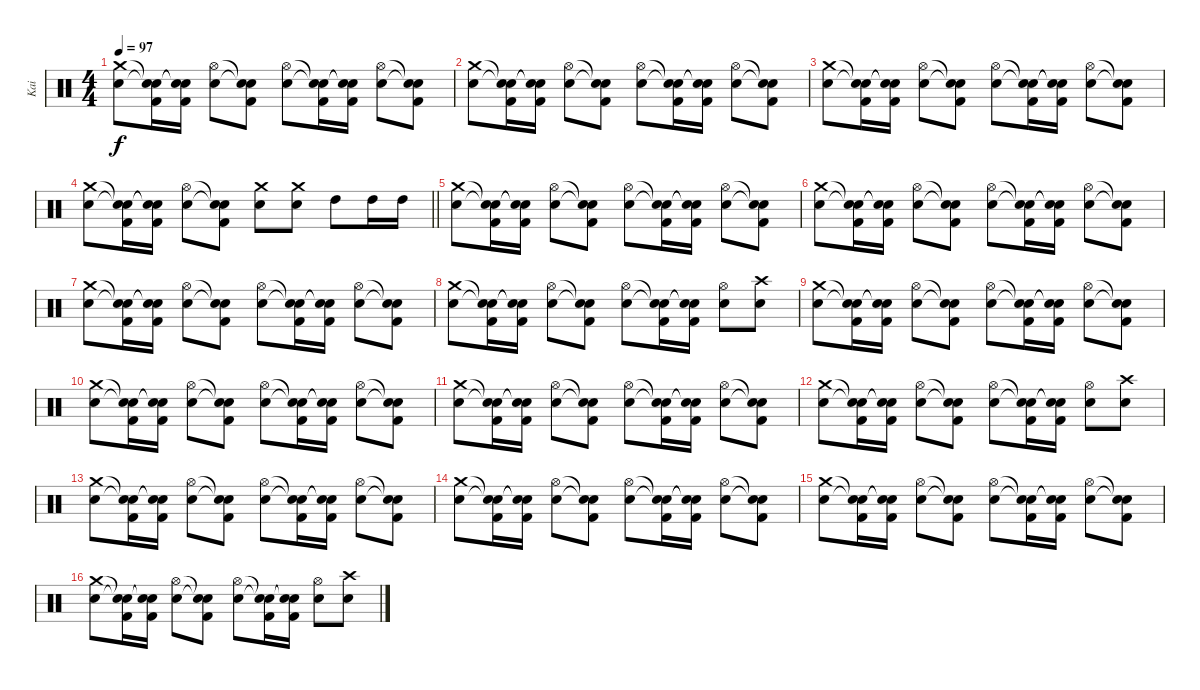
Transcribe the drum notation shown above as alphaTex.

\track ("Kai" "Kai") {instrument percussion}
\staff {score}
\articulation defaults
\ts (4 4)
\tempo 97
\clef neutral
\ks c
("Crash medium (hit)" "Snare (hit) 2").8{dy f} ("Snare (hit)"{t} "Snare (hit)"{t} "Kick (hit) 2").16 ("Snare (hit)"{t} "Snare (hit)"{t} "Kick (hit) 2").16 ("Hi-Hat (open)" "Snare (hit) 2").8 ("Snare (hit)"{t} "Snare (hit)"{t} "Kick (hit) 2").8 ("Hi-Hat (open)" "Snare (hit) 2").8 ("Snare (hit)"{t} "Snare (hit)"{t} "Kick (hit) 2").16 ("Snare (hit)"{t} "Snare (hit)"{t} "Kick (hit) 2").16 ("Hi-Hat (open)" "Snare (hit) 2").8 ("Snare (hit)"{t} "Snare (hit)"{t} "Kick (hit) 2").8 |
("Crash medium (hit)" "Snare (hit) 2").8 ("Snare (hit)"{t} "Snare (hit)"{t} "Kick (hit) 2").16 ("Snare (hit)"{t} "Snare (hit)"{t} "Kick (hit) 2").16 ("Hi-Hat (open)" "Snare (hit) 2").8 ("Snare (hit)"{t} "Snare (hit)"{t} "Kick (hit) 2").8 ("Hi-Hat (open)" "Snare (hit) 2").8 ("Snare (hit)"{t} "Snare (hit)"{t} "Kick (hit) 2").16 ("Snare (hit)"{t} "Snare (hit)"{t} "Kick (hit) 2").16 ("Hi-Hat (open)" "Snare (hit) 2").8 ("Snare (hit)"{t} "Snare (hit)"{t} "Kick (hit) 2").8 |
("Crash medium (hit)" "Snare (hit) 2").8 ("Snare (hit)"{t} "Snare (hit)"{t} "Kick (hit) 2").16 ("Snare (hit)"{t} "Snare (hit)"{t} "Kick (hit) 2").16 ("Hi-Hat (open)" "Snare (hit) 2").8 ("Snare (hit)"{t} "Snare (hit)"{t} "Kick (hit) 2").8 ("Hi-Hat (open)" "Snare (hit) 2").8 ("Snare (hit)"{t} "Snare (hit)"{t} "Kick (hit) 2").16 ("Snare (hit)"{t} "Snare (hit)"{t} "Kick (hit) 2").16 ("Hi-Hat (open)" "Snare (hit) 2").8 ("Snare (hit)"{t} "Snare (hit)"{t} "Kick (hit) 2").8 |
\barLineRight lightlight
("Crash medium (hit)" "Snare (hit) 2").8 ("Snare (hit)"{t} "Snare (hit)"{t} "Kick (hit) 2").16 ("Snare (hit)"{t} "Snare (hit)"{t} "Kick (hit) 2").16 ("Hi-Hat (open)" "Snare (hit) 2").8 ("Snare (hit)"{t} "Snare (hit)"{t} "Kick (hit) 2").8 ("Crash medium (hit)" "Snare (hit) 2").8 ("Crash medium (hit)" "Snare (hit) 2").8 "High Tom (hit)".8 "High Tom (hit)".16 "High Tom (hit)".16 |
("Crash medium (hit)" "Snare (hit) 2").8 ("Snare (hit)"{t} "Snare (hit)"{t} "Kick (hit) 2").16 ("Snare (hit)"{t} "Snare (hit)"{t} "Kick (hit) 2").16 ("Hi-Hat (open)" "Snare (hit) 2").8 ("Snare (hit)"{t} "Snare (hit)"{t} "Kick (hit) 2").8 ("Hi-Hat (open)" "Snare (hit) 2").8 ("Snare (hit)"{t} "Snare (hit)"{t} "Kick (hit) 2").16 ("Snare (hit)"{t} "Snare (hit)"{t} "Kick (hit) 2").16 ("Hi-Hat (open)" "Snare (hit) 2").8 ("Snare (hit)"{t} "Snare (hit)"{t} "Kick (hit) 2").8 |
("Crash medium (hit)" "Snare (hit) 2").8 ("Snare (hit)"{t} "Snare (hit)"{t} "Kick (hit) 2").16 ("Snare (hit)"{t} "Snare (hit)"{t} "Kick (hit) 2").16 ("Hi-Hat (open)" "Snare (hit) 2").8 ("Snare (hit)"{t} "Snare (hit)"{t} "Kick (hit) 2").8 ("Hi-Hat (open)" "Snare (hit) 2").8 ("Snare (hit)"{t} "Snare (hit)"{t} "Kick (hit) 2").16 ("Snare (hit)"{t} "Snare (hit)"{t} "Kick (hit) 2").16 ("Hi-Hat (open)" "Snare (hit) 2").8 ("Snare (hit)"{t} "Snare (hit)"{t} "Kick (hit) 2").8 |
("Crash medium (hit)" "Snare (hit) 2").8 ("Snare (hit)"{t} "Snare (hit)"{t} "Kick (hit) 2").16 ("Snare (hit)"{t} "Snare (hit)"{t} "Kick (hit) 2").16 ("Hi-Hat (open)" "Snare (hit) 2").8 ("Snare (hit)"{t} "Snare (hit)"{t} "Kick (hit) 2").8 ("Hi-Hat (open)" "Snare (hit) 2").8 ("Snare (hit)"{t} "Snare (hit)"{t} "Kick (hit) 2").16 ("Snare (hit)"{t} "Snare (hit)"{t} "Kick (hit) 2").16 ("Hi-Hat (open)" "Snare (hit) 2").8 ("Snare (hit)"{t} "Snare (hit)"{t} "Kick (hit) 2").8 |
("Crash medium (hit)" "Snare (hit) 2").8 ("Snare (hit)"{t} "Snare (hit)"{t} "Kick (hit) 2").16 ("Snare (hit)"{t} "Snare (hit)"{t} "Kick (hit) 2").16 ("Hi-Hat (open)" "Snare (hit) 2").8 ("Snare (hit)"{t} "Snare (hit)"{t} "Kick (hit) 2").8 ("Hi-Hat (open)" "Snare (hit) 2").8 ("Snare (hit)"{t} "Snare (hit)"{t} "Kick (hit) 2").16 ("Snare (hit)"{t} "Snare (hit)"{t} "Kick (hit) 2").16 ("Hi-Hat (open)" "Snare (hit) 2").8 ("Crash high (hit)" "Snare (hit) 2").8 |
("Crash medium (hit)" "Snare (hit) 2").8 ("Snare (hit)"{t} "Snare (hit)"{t} "Kick (hit) 2").16 ("Snare (hit)"{t} "Snare (hit)"{t} "Kick (hit) 2").16 ("Hi-Hat (open)" "Snare (hit) 2").8 ("Snare (hit)"{t} "Snare (hit)"{t} "Kick (hit) 2").8 ("Hi-Hat (open)" "Snare (hit) 2").8 ("Snare (hit)"{t} "Snare (hit)"{t} "Kick (hit) 2").16 ("Snare (hit)"{t} "Snare (hit)"{t} "Kick (hit) 2").16 ("Hi-Hat (open)" "Snare (hit) 2").8 ("Snare (hit)"{t} "Snare (hit)"{t} "Kick (hit) 2").8 |
("Crash medium (hit)" "Snare (hit) 2").8 ("Snare (hit)"{t} "Snare (hit)"{t} "Kick (hit) 2").16 ("Snare (hit)"{t} "Snare (hit)"{t} "Kick (hit) 2").16 ("Hi-Hat (open)" "Snare (hit) 2").8 ("Snare (hit)"{t} "Snare (hit)"{t} "Kick (hit) 2").8 ("Hi-Hat (open)" "Snare (hit) 2").8 ("Snare (hit)"{t} "Snare (hit)"{t} "Kick (hit) 2").16 ("Snare (hit)"{t} "Snare (hit)"{t} "Kick (hit) 2").16 ("Hi-Hat (open)" "Snare (hit) 2").8 ("Snare (hit)"{t} "Snare (hit)"{t} "Kick (hit) 2").8 |
("Crash medium (hit)" "Snare (hit) 2").8 ("Snare (hit)"{t} "Snare (hit)"{t} "Kick (hit) 2").16 ("Snare (hit)"{t} "Snare (hit)"{t} "Kick (hit) 2").16 ("Hi-Hat (open)" "Snare (hit) 2").8 ("Snare (hit)"{t} "Snare (hit)"{t} "Kick (hit) 2").8 ("Hi-Hat (open)" "Snare (hit) 2").8 ("Snare (hit)"{t} "Snare (hit)"{t} "Kick (hit) 2").16 ("Snare (hit)"{t} "Snare (hit)"{t} "Kick (hit) 2").16 ("Hi-Hat (open)" "Snare (hit) 2").8 ("Snare (hit)"{t} "Snare (hit)"{t} "Kick (hit) 2").8 |
("Crash medium (hit)" "Snare (hit) 2").8 ("Snare (hit)"{t} "Snare (hit)"{t} "Kick (hit) 2").16 ("Snare (hit)"{t} "Snare (hit)"{t} "Kick (hit) 2").16 ("Hi-Hat (open)" "Snare (hit) 2").8 ("Snare (hit)"{t} "Snare (hit)"{t} "Kick (hit) 2").8 ("Hi-Hat (open)" "Snare (hit) 2").8 ("Snare (hit)"{t} "Snare (hit)"{t} "Kick (hit) 2").16 ("Snare (hit)"{t} "Snare (hit)"{t} "Kick (hit) 2").16 ("Hi-Hat (open)" "Snare (hit) 2").8 ("Crash high (hit)" "Snare (hit) 2").8 |
("Crash medium (hit)" "Snare (hit) 2").8 ("Snare (hit)"{t} "Snare (hit)"{t} "Kick (hit) 2").16 ("Snare (hit)"{t} "Snare (hit)"{t} "Kick (hit) 2").16 ("Hi-Hat (open)" "Snare (hit) 2").8 ("Snare (hit)"{t} "Snare (hit)"{t} "Kick (hit) 2").8 ("Hi-Hat (open)" "Snare (hit) 2").8 ("Snare (hit)"{t} "Snare (hit)"{t} "Kick (hit) 2").16 ("Snare (hit)"{t} "Snare (hit)"{t} "Kick (hit) 2").16 ("Hi-Hat (open)" "Snare (hit) 2").8 ("Snare (hit)"{t} "Snare (hit)"{t} "Kick (hit) 2").8 |
("Crash medium (hit)" "Snare (hit) 2").8 ("Snare (hit)"{t} "Snare (hit)"{t} "Kick (hit) 2").16 ("Snare (hit)"{t} "Snare (hit)"{t} "Kick (hit) 2").16 ("Hi-Hat (open)" "Snare (hit) 2").8 ("Snare (hit)"{t} "Snare (hit)"{t} "Kick (hit) 2").8 ("Hi-Hat (open)" "Snare (hit) 2").8 ("Snare (hit)"{t} "Snare (hit)"{t} "Kick (hit) 2").16 ("Snare (hit)"{t} "Snare (hit)"{t} "Kick (hit) 2").16 ("Hi-Hat (open)" "Snare (hit) 2").8 ("Snare (hit)"{t} "Snare (hit)"{t} "Kick (hit) 2").8 |
("Crash medium (hit)" "Snare (hit) 2").8 ("Snare (hit)"{t} "Snare (hit)"{t} "Kick (hit) 2").16 ("Snare (hit)"{t} "Snare (hit)"{t} "Kick (hit) 2").16 ("Hi-Hat (open)" "Snare (hit) 2").8 ("Snare (hit)"{t} "Snare (hit)"{t} "Kick (hit) 2").8 ("Hi-Hat (open)" "Snare (hit) 2").8 ("Snare (hit)"{t} "Snare (hit)"{t} "Kick (hit) 2").16 ("Snare (hit)"{t} "Snare (hit)"{t} "Kick (hit) 2").16 ("Hi-Hat (open)" "Snare (hit) 2").8 ("Snare (hit)"{t} "Snare (hit)"{t} "Kick (hit) 2").8 |
("Crash medium (hit)" "Snare (hit) 2").8 ("Snare (hit)"{t} "Snare (hit)"{t} "Kick (hit) 2").16 ("Snare (hit)"{t} "Snare (hit)"{t} "Kick (hit) 2").16 ("Hi-Hat (open)" "Snare (hit) 2").8 ("Snare (hit)"{t} "Snare (hit)"{t} "Kick (hit) 2").8 ("Hi-Hat (open)" "Snare (hit) 2").8 ("Snare (hit)"{t} "Snare (hit)"{t} "Kick (hit) 2").16 ("Snare (hit)"{t} "Snare (hit)"{t} "Kick (hit) 2").16 ("Hi-Hat (open)" "Snare (hit) 2").8 ("Crash high (hit)" "Snare (hit) 2").8
